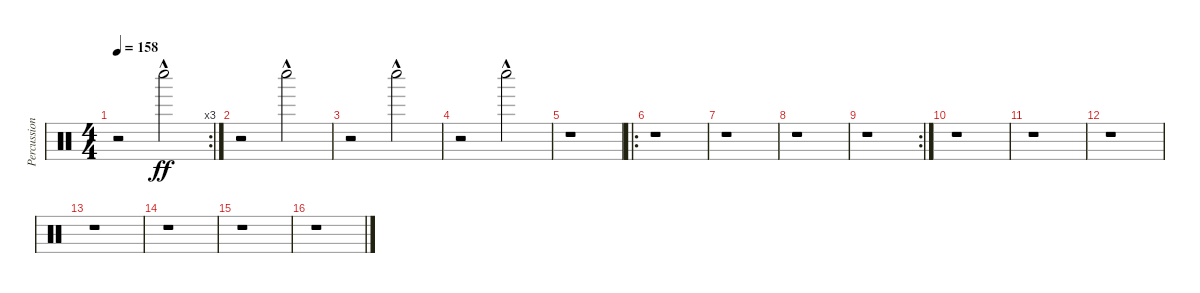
\track ("Percussion" "Percussion") {instrument percussion}
\staff {score}
\articulation defaults
\rc 3
\ts (4 4)
\tempo 158
\clef neutral
\ks c
r.2{dy ff} "Whistle low (hit)"{hac}.2 |
r.2 "Whistle low (hit)"{hac}.2 |
r.2 "Whistle low (hit)"{hac}.2 |
r.2 "Whistle low (hit)"{hac}.2 |
r.1 |
\ro
r.1 |
r.1 |
r.1 |
\rc 2
r.1 |
r.1 |
r.1 |
r.1 |
r.1 |
r.1 |
r.1 |
r.1
